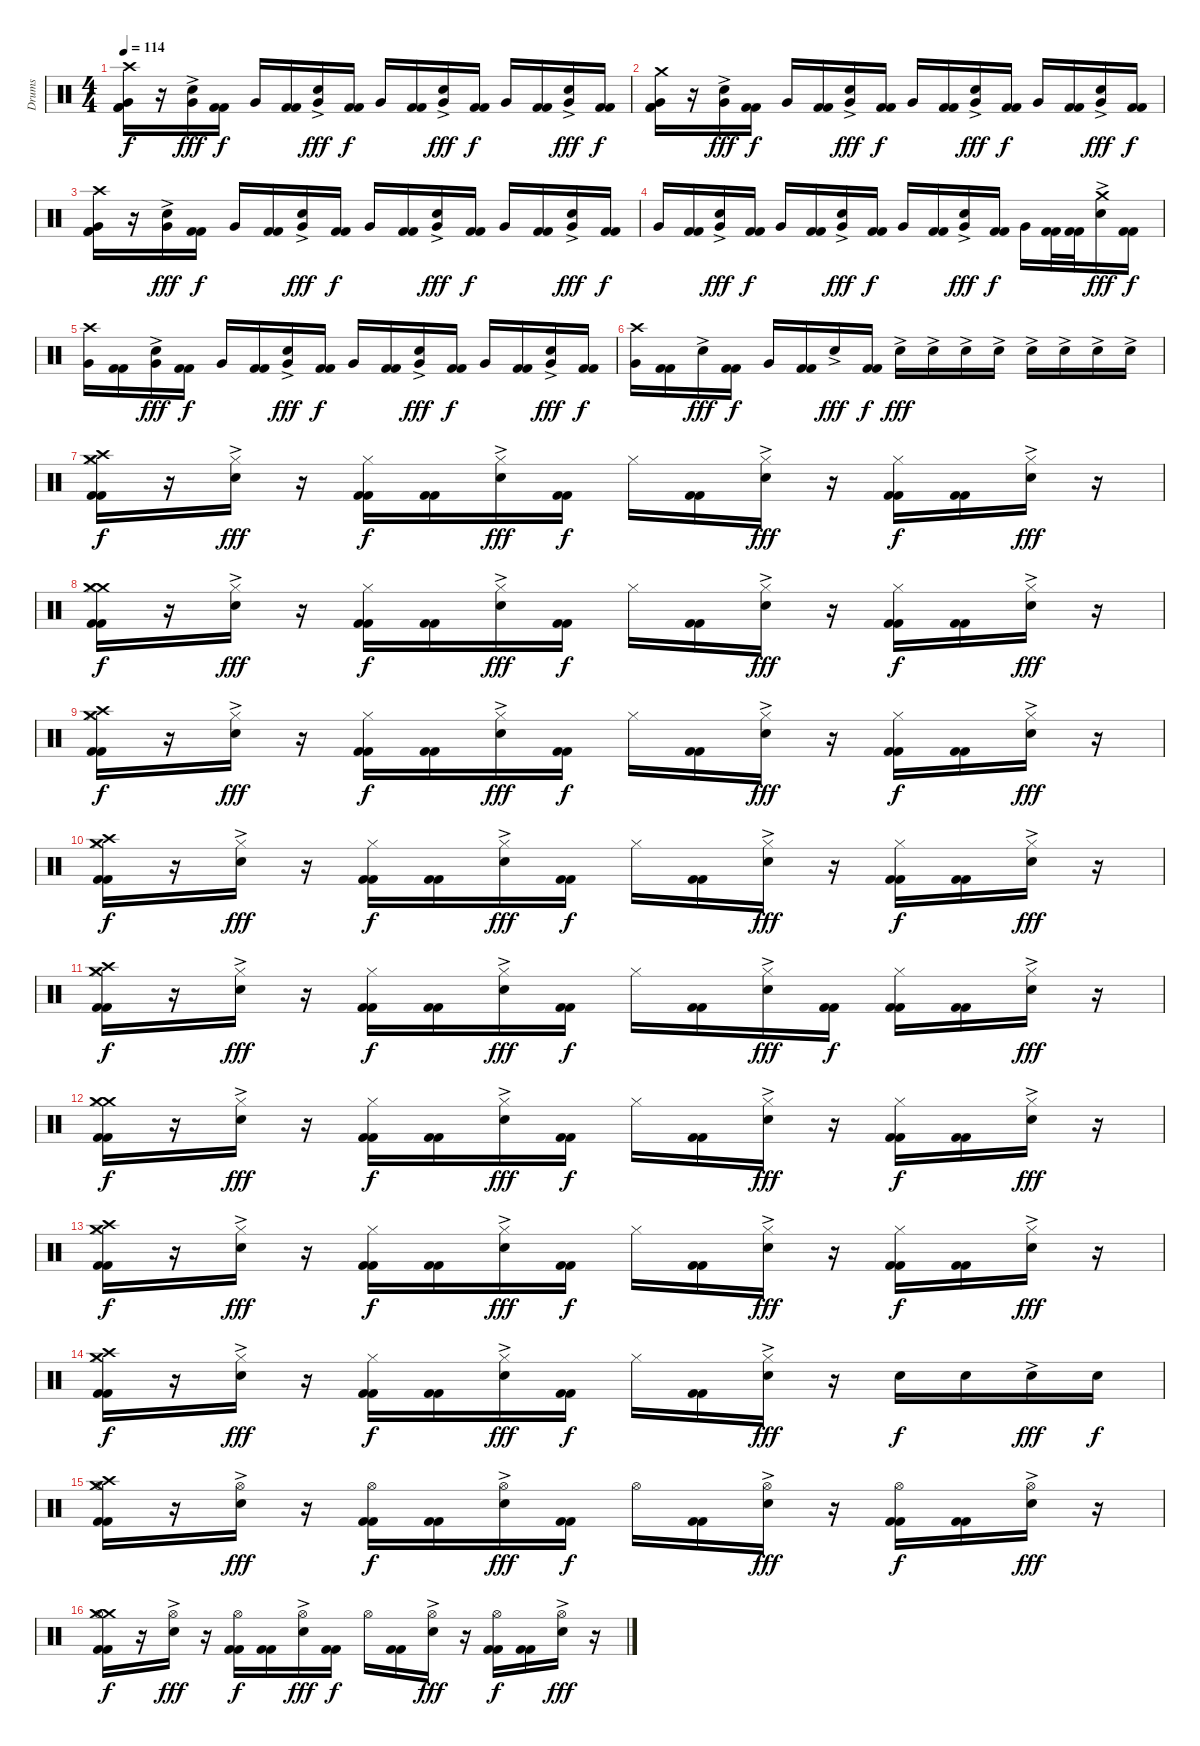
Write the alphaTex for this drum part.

\track ("Drums" "Drums") {instrument percussion}
\staff {score}
\articulation defaults
\ts (4 4)
\tempo 114
\clef neutral
\ks c
("Crash high (hit)" "Very Low Tom (hit)" "Kick (hit) 2" "Kick (hit) 2").16{dy f} r.16 ("Very Low Tom (hit)" "Electric Snare (hit)"{ac}).16{dy fff} ("Kick (hit) 2" "Kick (hit) 2").16{dy f} "Very Low Tom (hit)".16 ("Kick (hit) 2" "Kick (hit) 2").16 ("Very Low Tom (hit)" "Electric Snare (hit)"{ac}).16{dy fff} ("Kick (hit) 2" "Kick (hit) 2").16{dy f} "Very Low Tom (hit)".16 ("Kick (hit) 2" "Kick (hit) 2").16 ("Very Low Tom (hit)" "Electric Snare (hit)"{ac}).16{dy fff} ("Kick (hit) 2" "Kick (hit) 2").16{dy f} "Very Low Tom (hit)".16 ("Kick (hit) 2" "Kick (hit) 2").16 ("Very Low Tom (hit)" "Electric Snare (hit)"{ac}).16{dy fff} ("Kick (hit) 2" "Kick (hit) 2").16{dy f} |
("Crash medium (hit)" "Very Low Tom (hit)" "Kick (hit) 2" "Kick (hit) 2").16 r.16 ("Very Low Tom (hit)" "Electric Snare (hit)"{ac}).16{dy fff} ("Kick (hit) 2" "Kick (hit) 2").16{dy f} "Very Low Tom (hit)".16 ("Kick (hit) 2" "Kick (hit) 2").16 ("Very Low Tom (hit)" "Electric Snare (hit)"{ac}).16{dy fff} ("Kick (hit) 2" "Kick (hit) 2").16{dy f} "Very Low Tom (hit)".16 ("Kick (hit) 2" "Kick (hit) 2").16 ("Very Low Tom (hit)" "Electric Snare (hit)"{ac}).16{dy fff} ("Kick (hit) 2" "Kick (hit) 2").16{dy f} "Very Low Tom (hit)".16 ("Kick (hit) 2" "Kick (hit) 2").16 ("Very Low Tom (hit)" "Electric Snare (hit)"{ac}).16{dy fff} ("Kick (hit) 2" "Kick (hit) 2").16{dy f} |
("Crash high (hit)" "Very Low Tom (hit)" "Kick (hit) 2" "Kick (hit) 2").16 r.16 ("Very Low Tom (hit)" "Electric Snare (hit)"{ac}).16{dy fff} ("Kick (hit) 2" "Kick (hit) 2").16{dy f} "Very Low Tom (hit)".16 ("Kick (hit) 2" "Kick (hit) 2").16 ("Very Low Tom (hit)" "Electric Snare (hit)"{ac}).16{dy fff} ("Kick (hit) 2" "Kick (hit) 2").16{dy f} "Very Low Tom (hit)".16 ("Kick (hit) 2" "Kick (hit) 2").16 ("Very Low Tom (hit)" "Electric Snare (hit)"{ac}).16{dy fff} ("Kick (hit) 2" "Kick (hit) 2").16{dy f} "Very Low Tom (hit)".16 ("Kick (hit) 2" "Kick (hit) 2").16 ("Very Low Tom (hit)" "Electric Snare (hit)"{ac}).16{dy fff} ("Kick (hit) 2" "Kick (hit) 2").16{dy f} |
"Very Low Tom (hit)".16 ("Kick (hit) 2" "Kick (hit) 2").16 ("Very Low Tom (hit)" "Electric Snare (hit)"{ac}).16{dy fff} ("Kick (hit) 2" "Kick (hit) 2").16{dy f} "Very Low Tom (hit)".16 ("Kick (hit) 2" "Kick (hit) 2").16 ("Very Low Tom (hit)" "Electric Snare (hit)"{ac}).16{dy fff} ("Kick (hit) 2" "Kick (hit) 2").16{dy f} "Very Low Tom (hit)".16 ("Kick (hit) 2" "Kick (hit) 2").16 ("Very Low Tom (hit)" "Electric Snare (hit)"{ac}).16{dy fff} ("Kick (hit) 2" "Kick (hit) 2").16{dy f} "Very Low Tom (hit)".16 ("Kick (hit) 2" "Kick (hit) 2").32 ("Kick (hit) 2" "Kick (hit) 2").32 ("Crash medium (hit)" "Electric Snare (hit)"{ac}).16{dy fff} ("Kick (hit) 2" "Kick (hit) 2").16{dy f} |
("Crash high (hit)" "Very Low Tom (hit)").16 ("Kick (hit) 2" "Kick (hit) 2").16 ("Very Low Tom (hit)" "Electric Snare (hit)"{ac}).16{dy fff} ("Kick (hit) 2" "Kick (hit) 2").16{dy f} "Very Low Tom (hit)".16 ("Kick (hit) 2" "Kick (hit) 2").16 ("Very Low Tom (hit)" "Electric Snare (hit)"{ac}).16{dy fff} ("Kick (hit) 2" "Kick (hit) 2").16{dy f} "Very Low Tom (hit)".16 ("Kick (hit) 2" "Kick (hit) 2").16 ("Very Low Tom (hit)" "Electric Snare (hit)"{ac}).16{dy fff} ("Kick (hit) 2" "Kick (hit) 2").16{dy f} "Very Low Tom (hit)".16 ("Kick (hit) 2" "Kick (hit) 2").16 ("Very Low Tom (hit)" "Electric Snare (hit)"{ac}).16{dy fff} ("Kick (hit) 2" "Kick (hit) 2").16{dy f} |
("Crash high (hit)" "Very Low Tom (hit)").16 ("Kick (hit) 2" "Kick (hit) 2").16 "Electric Snare (hit)"{ac}.16{dy fff} ("Kick (hit) 2" "Kick (hit) 2").16{dy f} "Very Low Tom (hit)".16 ("Kick (hit) 2" "Kick (hit) 2").16 "Electric Snare (hit)"{ac}.16{dy fff} ("Kick (hit) 2" "Kick (hit) 2").16{dy f} "Electric Snare (hit)"{ac}.16{dy fff} "Electric Snare (hit)"{ac}.16 "Electric Snare (hit)"{ac}.16 "Electric Snare (hit)"{ac}.16 "Electric Snare (hit)"{ac}.16 "Electric Snare (hit)"{ac}.16 "Electric Snare (hit)"{ac}.16 "Electric Snare (hit)"{ac}.16 |
("Crash high (hit)" "Crash medium (hit)" "Hi-Hat (closed)" "Kick (hit) 2" "Kick (hit) 2").16{dy f} r.16 ("Hi-Hat (closed)" "Electric Snare (hit)"{ac}).16{dy fff} r.16 ("Hi-Hat (closed)" "Kick (hit) 2" "Kick (hit) 2").16{dy f} ("Kick (hit) 2" "Kick (hit) 2").16 ("Hi-Hat (closed)" "Electric Snare (hit)"{ac}).16{dy fff} ("Kick (hit) 2" "Kick (hit) 2").16{dy f} "Hi-Hat (closed)".16 ("Kick (hit) 2" "Kick (hit) 2").16 ("Hi-Hat (closed)" "Electric Snare (hit)"{ac}).16{dy fff} r.16 ("Hi-Hat (closed)" "Kick (hit) 2" "Kick (hit) 2").16{dy f} ("Kick (hit) 2" "Kick (hit) 2").16 ("Hi-Hat (closed)" "Electric Snare (hit)"{ac}).16{dy fff} r.16 |
("Crash medium (hit)" "Crash medium (hit)" "Hi-Hat (closed)" "Kick (hit) 2" "Kick (hit) 2").16{dy f} r.16 ("Hi-Hat (closed)" "Electric Snare (hit)"{ac}).16{dy fff} r.16 ("Hi-Hat (closed)" "Kick (hit) 2" "Kick (hit) 2").16{dy f} ("Kick (hit) 2" "Kick (hit) 2").16 ("Hi-Hat (closed)" "Electric Snare (hit)"{ac}).16{dy fff} ("Kick (hit) 2" "Kick (hit) 2").16{dy f} "Hi-Hat (closed)".16 ("Kick (hit) 2" "Kick (hit) 2").16 ("Hi-Hat (closed)" "Electric Snare (hit)"{ac}).16{dy fff} r.16 ("Hi-Hat (closed)" "Kick (hit) 2" "Kick (hit) 2").16{dy f} ("Kick (hit) 2" "Kick (hit) 2").16 ("Hi-Hat (closed)" "Electric Snare (hit)"{ac}).16{dy fff} r.16 |
("Crash high (hit)" "Crash medium (hit)" "Hi-Hat (closed)" "Kick (hit) 2" "Kick (hit) 2").16{dy f} r.16 ("Hi-Hat (closed)" "Electric Snare (hit)"{ac}).16{dy fff} r.16 ("Hi-Hat (closed)" "Kick (hit) 2" "Kick (hit) 2").16{dy f} ("Kick (hit) 2" "Kick (hit) 2").16 ("Hi-Hat (closed)" "Electric Snare (hit)"{ac}).16{dy fff} ("Kick (hit) 2" "Kick (hit) 2").16{dy f} "Hi-Hat (closed)".16 ("Kick (hit) 2" "Kick (hit) 2").16 ("Hi-Hat (closed)" "Electric Snare (hit)"{ac}).16{dy fff} r.16 ("Hi-Hat (closed)" "Kick (hit) 2" "Kick (hit) 2").16{dy f} ("Kick (hit) 2" "Kick (hit) 2").16 ("Hi-Hat (closed)" "Electric Snare (hit)"{ac}).16{dy fff} r.16 |
("Crash high (hit)" "Crash medium (hit)" "Hi-Hat (closed)" "Kick (hit) 2" "Kick (hit) 2").16{dy f} r.16 ("Hi-Hat (closed)" "Electric Snare (hit)"{ac}).16{dy fff} r.16 ("Hi-Hat (closed)" "Kick (hit) 2" "Kick (hit) 2").16{dy f} ("Kick (hit) 2" "Kick (hit) 2").16 ("Hi-Hat (closed)" "Electric Snare (hit)"{ac}).16{dy fff} ("Kick (hit) 2" "Kick (hit) 2").16{dy f} "Hi-Hat (closed)".16 ("Kick (hit) 2" "Kick (hit) 2").16 ("Hi-Hat (closed)" "Electric Snare (hit)"{ac}).16{dy fff} r.16 ("Hi-Hat (closed)" "Kick (hit) 2" "Kick (hit) 2").16{dy f} ("Kick (hit) 2" "Kick (hit) 2").16 ("Hi-Hat (closed)" "Electric Snare (hit)"{ac}).16{dy fff} r.16 |
("Crash high (hit)" "Crash medium (hit)" "Hi-Hat (closed)" "Kick (hit) 2" "Kick (hit) 2").16{dy f} r.16 ("Hi-Hat (closed)" "Electric Snare (hit)"{ac}).16{dy fff} r.16 ("Hi-Hat (closed)" "Kick (hit) 2" "Kick (hit) 2").16{dy f} ("Kick (hit) 2" "Kick (hit) 2").16 ("Hi-Hat (closed)" "Electric Snare (hit)"{ac}).16{dy fff} ("Kick (hit) 2" "Kick (hit) 2").16{dy f} "Hi-Hat (closed)".16 ("Kick (hit) 2" "Kick (hit) 2").16 ("Hi-Hat (closed)" "Electric Snare (hit)"{ac}).16{dy fff} ("Kick (hit) 2" "Kick (hit) 2").16{dy f} ("Hi-Hat (closed)" "Kick (hit) 2" "Kick (hit) 2").16 ("Kick (hit) 2" "Kick (hit) 2").16 ("Hi-Hat (closed)" "Electric Snare (hit)"{ac}).16{dy fff} r.16 |
("Crash medium (hit)" "Crash medium (hit)" "Hi-Hat (closed)" "Kick (hit) 2" "Kick (hit) 2").16{dy f} r.16 ("Hi-Hat (closed)" "Electric Snare (hit)"{ac}).16{dy fff} r.16 ("Hi-Hat (closed)" "Kick (hit) 2" "Kick (hit) 2").16{dy f} ("Kick (hit) 2" "Kick (hit) 2").16 ("Hi-Hat (closed)" "Electric Snare (hit)"{ac}).16{dy fff} ("Kick (hit) 2" "Kick (hit) 2").16{dy f} "Hi-Hat (closed)".16 ("Kick (hit) 2" "Kick (hit) 2").16 ("Hi-Hat (closed)" "Electric Snare (hit)"{ac}).16{dy fff} r.16 ("Hi-Hat (closed)" "Kick (hit) 2" "Kick (hit) 2").16{dy f} ("Kick (hit) 2" "Kick (hit) 2").16 ("Hi-Hat (closed)" "Electric Snare (hit)"{ac}).16{dy fff} r.16 |
("Crash high (hit)" "Crash medium (hit)" "Hi-Hat (closed)" "Kick (hit) 2" "Kick (hit) 2").16{dy f} r.16 ("Hi-Hat (closed)" "Electric Snare (hit)"{ac}).16{dy fff} r.16 ("Hi-Hat (closed)" "Kick (hit) 2" "Kick (hit) 2").16{dy f} ("Kick (hit) 2" "Kick (hit) 2").16 ("Hi-Hat (closed)" "Electric Snare (hit)"{ac}).16{dy fff} ("Kick (hit) 2" "Kick (hit) 2").16{dy f} "Hi-Hat (closed)".16 ("Kick (hit) 2" "Kick (hit) 2").16 ("Hi-Hat (closed)" "Electric Snare (hit)"{ac}).16{dy fff} r.16 ("Hi-Hat (closed)" "Kick (hit) 2" "Kick (hit) 2").16{dy f} ("Kick (hit) 2" "Kick (hit) 2").16 ("Hi-Hat (closed)" "Electric Snare (hit)"{ac}).16{dy fff} r.16 |
("Crash high (hit)" "Crash medium (hit)" "Hi-Hat (closed)" "Kick (hit) 2" "Kick (hit) 2").16{dy f} r.16 ("Hi-Hat (closed)" "Electric Snare (hit)"{ac}).16{dy fff} r.16 ("Hi-Hat (closed)" "Kick (hit) 2" "Kick (hit) 2").16{dy f} ("Kick (hit) 2" "Kick (hit) 2").16 ("Hi-Hat (closed)" "Electric Snare (hit)"{ac}).16{dy fff} ("Kick (hit) 2" "Kick (hit) 2").16{dy f} "Hi-Hat (closed)".16 ("Kick (hit) 2" "Kick (hit) 2").16 ("Hi-Hat (closed)" "Electric Snare (hit)"{ac}).16{dy fff} r.16 "Electric Snare (hit)".16{dy f} "Electric Snare (hit)".16 "Electric Snare (hit)"{ac}.16{dy fff} "Electric Snare (hit)".16{dy f} |
("Crash high (hit)" "Crash medium (hit)" "Hi-Hat (open)" "Kick (hit) 2" "Kick (hit) 2").16 r.16 ("Hi-Hat (open)" "Electric Snare (hit)"{ac}).16{dy fff} r.16 ("Hi-Hat (open)" "Kick (hit) 2" "Kick (hit) 2").16{dy f} ("Kick (hit) 2" "Kick (hit) 2").16 ("Hi-Hat (open)" "Electric Snare (hit)"{ac}).16{dy fff} ("Kick (hit) 2" "Kick (hit) 2").16{dy f} "Hi-Hat (open)".16 ("Kick (hit) 2" "Kick (hit) 2").16 ("Hi-Hat (open)" "Electric Snare (hit)"{ac}).16{dy fff} r.16 ("Hi-Hat (open)" "Kick (hit) 2" "Kick (hit) 2").16{dy f} ("Kick (hit) 2" "Kick (hit) 2").16 ("Hi-Hat (open)" "Electric Snare (hit)"{ac}).16{dy fff} r.16 |
("Crash medium (hit)" "Crash medium (hit)" "Hi-Hat (open)" "Kick (hit) 2" "Kick (hit) 2").16{dy f} r.16 ("Hi-Hat (open)" "Electric Snare (hit)"{ac}).16{dy fff} r.16 ("Hi-Hat (open)" "Kick (hit) 2" "Kick (hit) 2").16{dy f} ("Kick (hit) 2" "Kick (hit) 2").16 ("Hi-Hat (open)" "Electric Snare (hit)"{ac}).16{dy fff} ("Kick (hit) 2" "Kick (hit) 2").16{dy f} "Hi-Hat (open)".16 ("Kick (hit) 2" "Kick (hit) 2").16 ("Hi-Hat (open)" "Electric Snare (hit)"{ac}).16{dy fff} r.16 ("Hi-Hat (open)" "Kick (hit) 2" "Kick (hit) 2").16{dy f} ("Kick (hit) 2" "Kick (hit) 2").16 ("Hi-Hat (open)" "Electric Snare (hit)"{ac}).16{dy fff} r.16
